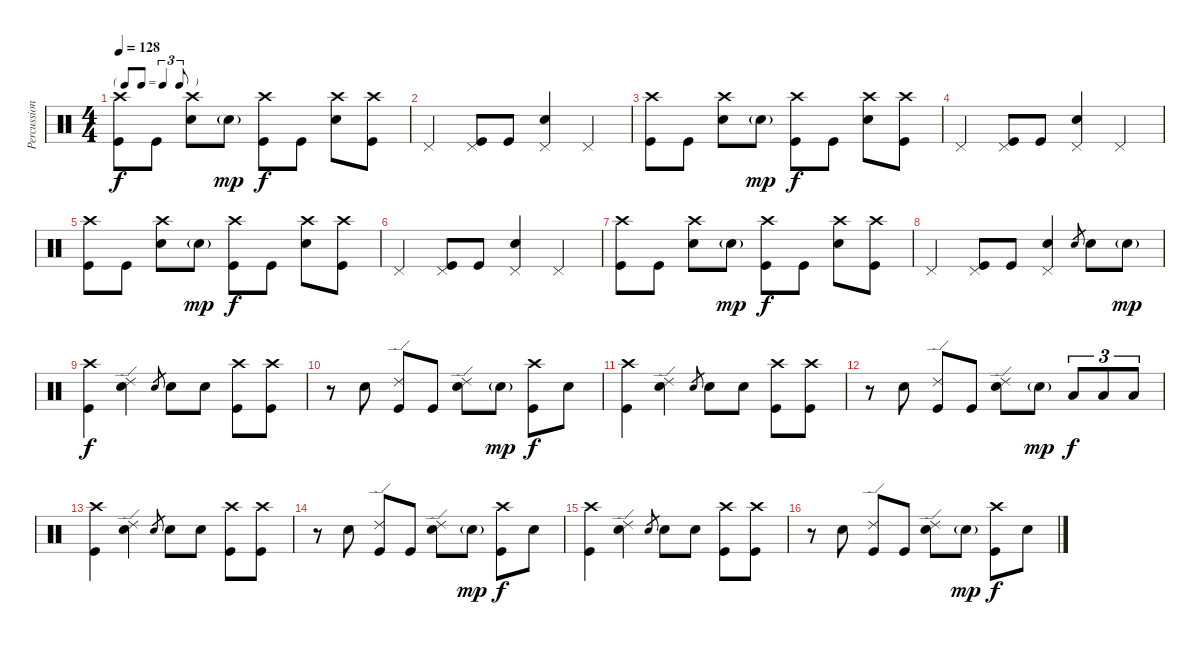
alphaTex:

\track ("Percussion" "Percussion") {instrument percussion}
\staff {score}
\articulation defaults
\ts (4 4)
\tf triplet8th
\tempo 128
\clef neutral
\ks c
("Crash high (hit)" "Kick (hit)").8{dy f} "Kick (hit)".8 ("Crash high (hit)" "Electric Snare (hit)").8 "Electric Snare (hit)"{g}.8{dy mp} ("Crash high (hit)" "Kick (hit)").8{dy f} "Kick (hit)".8 ("Crash high (hit)" "Electric Snare (hit)").8 ("Crash high (hit)" "Kick (hit)").8 |
"Pedal Hi-Hat (hit)".4 ("Pedal Hi-Hat (hit)" "Kick (hit)").8 "Kick (hit)".8 ("Pedal Hi-Hat (hit)" "Electric Snare (hit)").4 "Pedal Hi-Hat (hit)".4 |
("Crash high (hit)" "Kick (hit)").8 "Kick (hit)".8 ("Crash high (hit)" "Electric Snare (hit)").8 "Electric Snare (hit)"{g}.8{dy mp} ("Crash high (hit)" "Kick (hit)").8{dy f} "Kick (hit)".8 ("Crash high (hit)" "Electric Snare (hit)").8 ("Crash high (hit)" "Kick (hit)").8 |
"Pedal Hi-Hat (hit)".4 ("Pedal Hi-Hat (hit)" "Kick (hit)").8 "Kick (hit)".8 ("Pedal Hi-Hat (hit)" "Electric Snare (hit)").4 "Pedal Hi-Hat (hit)".4 |
("Crash high (hit)" "Kick (hit)").8 "Kick (hit)".8 ("Crash high (hit)" "Electric Snare (hit)").8 "Electric Snare (hit)"{g}.8{dy mp} ("Crash high (hit)" "Kick (hit)").8{dy f} "Kick (hit)".8 ("Crash high (hit)" "Electric Snare (hit)").8 ("Crash high (hit)" "Kick (hit)").8 |
"Pedal Hi-Hat (hit)".4 ("Pedal Hi-Hat (hit)" "Kick (hit)").8 "Kick (hit)".8 ("Pedal Hi-Hat (hit)" "Electric Snare (hit)").4 "Pedal Hi-Hat (hit)".4 |
("Crash high (hit)" "Kick (hit)").8 "Kick (hit)".8 ("Crash high (hit)" "Electric Snare (hit)").8 "Electric Snare (hit)"{g}.8{dy mp} ("Crash high (hit)" "Kick (hit)").8{dy f} "Kick (hit)".8 ("Crash high (hit)" "Electric Snare (hit)").8 ("Crash high (hit)" "Kick (hit)").8 |
"Pedal Hi-Hat (hit)".4 ("Pedal Hi-Hat (hit)" "Kick (hit)").8 "Kick (hit)".8 ("Pedal Hi-Hat (hit)" "Electric Snare (hit)").4 "Electric Snare (hit)".8{gr} "Electric Snare (hit)".8 "Electric Snare (hit)"{g}.8{dy mp} |
("Crash high (hit)" "Kick (hit)").4{dy f} ("Ride (edge) 2" "Electric Snare (hit)").4 "Electric Snare (hit)".8{gr} "Electric Snare (hit)".8 "Electric Snare (hit)".8 ("Crash high (hit)" "Kick (hit)").8 ("Crash high (hit)" "Kick (hit)").8 |
r.8 "Electric Snare (hit)".8 ("Ride (edge) 2" "Kick (hit)").8 "Kick (hit)".8 ("Ride (edge) 2" "Electric Snare (hit)").8 "Electric Snare (hit)"{g}.8{dy mp} ("Crash high (hit)" "Kick (hit)").8{dy f} "Electric Snare (hit)".8 |
("Crash high (hit)" "Kick (hit)").4 ("Ride (edge) 2" "Electric Snare (hit)").4 "Electric Snare (hit)".8{gr} "Electric Snare (hit)".8 "Electric Snare (hit)".8 ("Crash high (hit)" "Kick (hit)").8 ("Crash high (hit)" "Kick (hit)").8 |
r.8 "Electric Snare (hit)".8 ("Ride (edge) 2" "Kick (hit)").8 "Kick (hit)".8 ("Ride (edge) 2" "Electric Snare (hit)").8 "Electric Snare (hit)"{g}.8{dy mp} "Low Tom (hit)".8{tu (3 2) dy f} "Low Tom (hit)".8{tu (3 2)} "Low Tom (hit)".8{tu (3 2)} |
("Crash high (hit)" "Kick (hit)").4 ("Ride (edge) 2" "Electric Snare (hit)").4 "Electric Snare (hit)".8{gr} "Electric Snare (hit)".8 "Electric Snare (hit)".8 ("Crash high (hit)" "Kick (hit)").8 ("Crash high (hit)" "Kick (hit)").8 |
r.8 "Electric Snare (hit)".8 ("Ride (edge) 2" "Kick (hit)").8 "Kick (hit)".8 ("Ride (edge) 2" "Electric Snare (hit)").8 "Electric Snare (hit)"{g}.8{dy mp} ("Crash high (hit)" "Kick (hit)").8{dy f} "Electric Snare (hit)".8 |
("Crash high (hit)" "Kick (hit)").4 ("Ride (edge) 2" "Electric Snare (hit)").4 "Electric Snare (hit)".8{gr} "Electric Snare (hit)".8 "Electric Snare (hit)".8 ("Crash high (hit)" "Kick (hit)").8 ("Crash high (hit)" "Kick (hit)").8 |
r.8 "Electric Snare (hit)".8 ("Ride (edge) 2" "Kick (hit)").8 "Kick (hit)".8 ("Ride (edge) 2" "Electric Snare (hit)").8 "Electric Snare (hit)"{g}.8{dy mp} ("Crash high (hit)" "Kick (hit)").8{dy f} "Electric Snare (hit)".8
